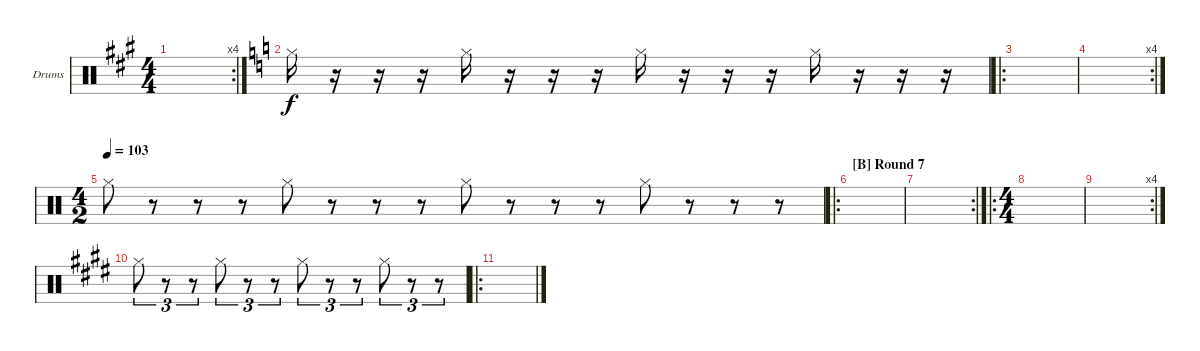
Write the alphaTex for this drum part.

\defaultSystemsLayout 4
\bracketExtendMode groupsimilarinstruments
\firstSystemTrackNameOrientation horizontal
\otherSystemsTrackNameOrientation horizontal
\track ("Drumkit" "Drums") {instrument percussion}
\staff {score}
\articulation defaults
\rc 4
\ts (4 4)
\tempo (72 hide)
\clef neutral
\scale
0.286364
\ks a
|
\scale
0.454545
\ks c "Hi-Hat (closed)".16
r.16 r.16 r.16 "Hi-Hat (closed)".16 r.16 r.16 r.16 "Hi-Hat (closed)".16 r.16 r.16 r.16 "Hi-Hat (closed)".16 r.16 r.16 r.16 |
\ro
\scale
0.294872 |
\rc 4
\scale
0.269231 |
\ts (4 2)
\tempo 103
\scale
0.435897 "Hi-Hat (closed)".8 r.8 r.8 r.8 "Hi-Hat (closed)".8 r.8 r.8 r.8 "Hi-Hat (closed)".8 r.8 r.8 r.8 "Hi-Hat (closed)".8 r.8 r.8 r.8 |
\ro
\section ("B" "Round 7")
\tempo (103 hide)
\scale
0.280488 |
\rc 2
\scale
0.256098 |
\ro
\ts (4 4)
\scale
0.463415 |
\rc 4
\scale
0.261411 |
\scale
0.452282
\ks e "Hi-Hat (closed)".8{tu (3 2)}
r.8{tu (3 2)} r.8{tu (3 2)} "Hi-Hat (closed)".8{tu (3 2)} r.8{tu (3 2)} r.8{tu (3 2)} "Hi-Hat (closed)".8{tu (3 2)} r.8{tu (3 2)} r.8{tu (3 2)} "Hi-Hat (closed)".8{tu (3 2)} r.8{tu (3 2)} r.8{tu (3 2)} |
\ro
\scale
0.286307 |
\scale
0.333333 |
\scale
0.333333 |
\scale
0.333333 |
\scale
0.333333 |
\scale
0.333333
